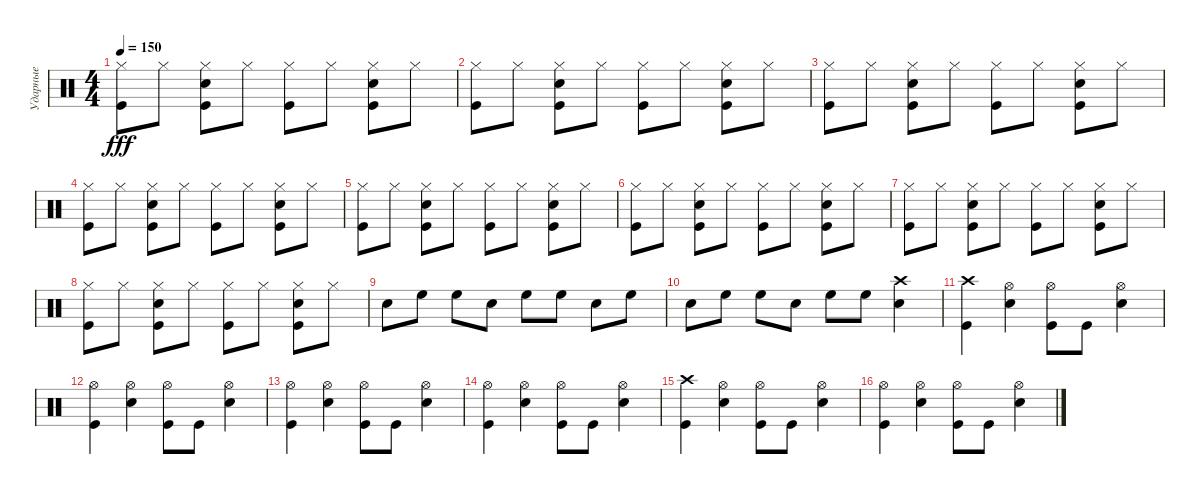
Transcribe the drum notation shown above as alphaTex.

\track ("Ударные" "Ударные") {instrument percussion}
\staff {score}
\articulation defaults
\ts (4 4)
\tempo 150
\clef neutral
\ks c
("Kick (hit)" "Hi-Hat (closed)").8{dy fff} "Hi-Hat (closed)".8 ("Hi-Hat (closed)" "Electric Snare (hit)" "Kick (hit)").8 "Hi-Hat (closed)".8 ("Hi-Hat (closed)" "Kick (hit)").8 "Hi-Hat (closed)".8 ("Hi-Hat (closed)" "Kick (hit)" "Electric Snare (hit)").8 "Hi-Hat (closed)".8 |
("Kick (hit)" "Hi-Hat (closed)").8 "Hi-Hat (closed)".8 ("Hi-Hat (closed)" "Electric Snare (hit)" "Kick (hit)").8 "Hi-Hat (closed)".8 ("Hi-Hat (closed)" "Kick (hit)").8 "Hi-Hat (closed)".8 ("Hi-Hat (closed)" "Kick (hit)" "Electric Snare (hit)").8 "Hi-Hat (closed)".8 |
("Kick (hit)" "Hi-Hat (closed)").8 "Hi-Hat (closed)".8 ("Hi-Hat (closed)" "Electric Snare (hit)" "Kick (hit)").8 "Hi-Hat (closed)".8 ("Hi-Hat (closed)" "Kick (hit)").8 "Hi-Hat (closed)".8 ("Hi-Hat (closed)" "Kick (hit)" "Electric Snare (hit)").8 "Hi-Hat (closed)".8 |
("Kick (hit)" "Hi-Hat (closed)").8 "Hi-Hat (closed)".8 ("Hi-Hat (closed)" "Electric Snare (hit)" "Kick (hit)").8 "Hi-Hat (closed)".8 ("Hi-Hat (closed)" "Kick (hit)").8 "Hi-Hat (closed)".8 ("Hi-Hat (closed)" "Kick (hit)" "Electric Snare (hit)").8 "Hi-Hat (closed)".8 |
("Kick (hit)" "Hi-Hat (closed)").8 "Hi-Hat (closed)".8 ("Hi-Hat (closed)" "Electric Snare (hit)" "Kick (hit)").8 "Hi-Hat (closed)".8 ("Hi-Hat (closed)" "Kick (hit)").8 "Hi-Hat (closed)".8 ("Hi-Hat (closed)" "Kick (hit)" "Electric Snare (hit)").8 "Hi-Hat (closed)".8 |
("Kick (hit)" "Hi-Hat (closed)").8 "Hi-Hat (closed)".8 ("Hi-Hat (closed)" "Electric Snare (hit)" "Kick (hit)").8 "Hi-Hat (closed)".8 ("Hi-Hat (closed)" "Kick (hit)").8 "Hi-Hat (closed)".8 ("Hi-Hat (closed)" "Kick (hit)" "Electric Snare (hit)").8 "Hi-Hat (closed)".8 |
("Kick (hit)" "Hi-Hat (closed)").8 "Hi-Hat (closed)".8 ("Hi-Hat (closed)" "Electric Snare (hit)" "Kick (hit)").8 "Hi-Hat (closed)".8 ("Hi-Hat (closed)" "Kick (hit)").8 "Hi-Hat (closed)".8 ("Hi-Hat (closed)" "Kick (hit)" "Electric Snare (hit)").8 "Hi-Hat (closed)".8 |
("Kick (hit)" "Hi-Hat (closed)").8 "Hi-Hat (closed)".8 ("Hi-Hat (closed)" "Electric Snare (hit)" "Kick (hit)").8 "Hi-Hat (closed)".8 ("Hi-Hat (closed)" "Kick (hit)").8 "Hi-Hat (closed)".8 ("Hi-Hat (closed)" "Kick (hit)" "Electric Snare (hit)").8 "Hi-Hat (closed)".8 |
"Electric Snare (hit)".8 "High Floor Tom (hit)".8 "High Floor Tom (hit)".8 "Electric Snare (hit)".8 "High Floor Tom (hit)".8 "High Floor Tom (hit)".8 "Electric Snare (hit)".8 "High Floor Tom (hit)".8 |
"Electric Snare (hit)".8 "High Floor Tom (hit)".8 "High Floor Tom (hit)".8 "Electric Snare (hit)".8 "High Floor Tom (hit)".8 "High Floor Tom (hit)".8 ("Electric Snare (hit)" "Crash high (hit)").4 |
("Crash high (hit)" "Kick (hit)").4 ("Hi-Hat (open)" "Electric Snare (hit)").4 ("Hi-Hat (open)" "Kick (hit)").8 "Kick (hit)".8 ("Hi-Hat (open)" "Electric Snare (hit)").4 |
("Hi-Hat (open)" "Kick (hit)").4 ("Hi-Hat (open)" "Electric Snare (hit)").4 ("Hi-Hat (open)" "Kick (hit)").8 "Kick (hit)".8 ("Hi-Hat (open)" "Electric Snare (hit)").4 |
("Hi-Hat (open)" "Kick (hit)").4 ("Hi-Hat (open)" "Electric Snare (hit)").4 ("Hi-Hat (open)" "Kick (hit)").8 "Kick (hit)".8 ("Hi-Hat (open)" "Electric Snare (hit)").4 |
("Hi-Hat (open)" "Kick (hit)").4 ("Hi-Hat (open)" "Electric Snare (hit)").4 ("Hi-Hat (open)" "Kick (hit)").8 "Kick (hit)".8 ("Hi-Hat (open)" "Electric Snare (hit)").4 |
("Crash high (hit)" "Kick (hit)").4 ("Hi-Hat (open)" "Electric Snare (hit)").4 ("Hi-Hat (open)" "Kick (hit)").8 "Kick (hit)".8 ("Hi-Hat (open)" "Electric Snare (hit)").4 |
("Hi-Hat (open)" "Kick (hit)").4 ("Hi-Hat (open)" "Electric Snare (hit)").4 ("Hi-Hat (open)" "Kick (hit)").8 "Kick (hit)".8 ("Hi-Hat (open)" "Electric Snare (hit)").4
